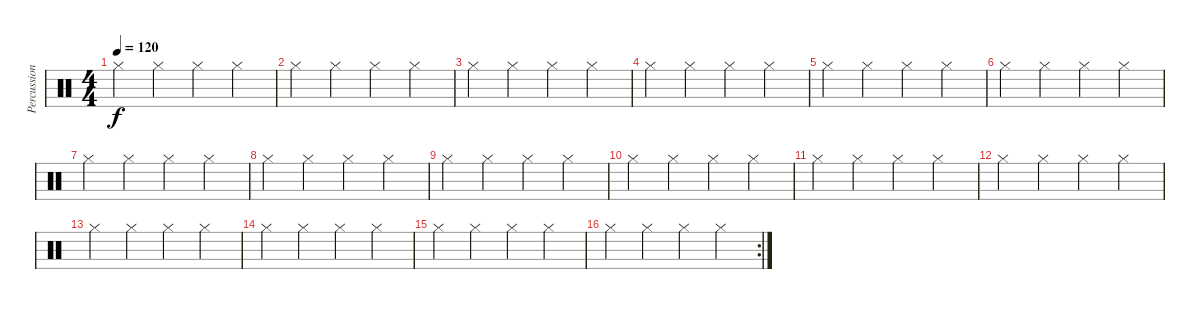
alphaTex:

\track ("Percussioni" "Percussion") {instrument percussion}
\staff {score}
\articulation defaults
\ts (4 4)
\tempo 120
\clef neutral
\ks c "Hi-Hat (closed)".4{dy f} "Hi-Hat (closed)".4 "Hi-Hat (closed)".4 "Hi-Hat (closed)".4
|
"Hi-Hat (closed)".4 "Hi-Hat (closed)".4 "Hi-Hat (closed)".4 "Hi-Hat (closed)".4 |
"Hi-Hat (closed)".4 "Hi-Hat (closed)".4 "Hi-Hat (closed)".4 "Hi-Hat (closed)".4 |
"Hi-Hat (closed)".4 "Hi-Hat (closed)".4 "Hi-Hat (closed)".4 "Hi-Hat (closed)".4 |
"Hi-Hat (closed)".4 "Hi-Hat (closed)".4 "Hi-Hat (closed)".4 "Hi-Hat (closed)".4 |
"Hi-Hat (closed)".4 "Hi-Hat (closed)".4 "Hi-Hat (closed)".4 "Hi-Hat (closed)".4 |
"Hi-Hat (closed)".4 "Hi-Hat (closed)".4 "Hi-Hat (closed)".4 "Hi-Hat (closed)".4 |
"Hi-Hat (closed)".4 "Hi-Hat (closed)".4 "Hi-Hat (closed)".4 "Hi-Hat (closed)".4 |
"Hi-Hat (closed)".4 "Hi-Hat (closed)".4 "Hi-Hat (closed)".4 "Hi-Hat (closed)".4 |
"Hi-Hat (closed)".4 "Hi-Hat (closed)".4 "Hi-Hat (closed)".4 "Hi-Hat (closed)".4 |
"Hi-Hat (closed)".4 "Hi-Hat (closed)".4 "Hi-Hat (closed)".4 "Hi-Hat (closed)".4 |
"Hi-Hat (closed)".4 "Hi-Hat (closed)".4 "Hi-Hat (closed)".4 "Hi-Hat (closed)".4 |
"Hi-Hat (closed)".4 "Hi-Hat (closed)".4 "Hi-Hat (closed)".4 "Hi-Hat (closed)".4 |
"Hi-Hat (closed)".4 "Hi-Hat (closed)".4 "Hi-Hat (closed)".4 "Hi-Hat (closed)".4 |
"Hi-Hat (closed)".4 "Hi-Hat (closed)".4 "Hi-Hat (closed)".4 "Hi-Hat (closed)".4 |
\rc 2 "Hi-Hat (closed)".4 "Hi-Hat (closed)".4 "Hi-Hat (closed)".4 "Hi-Hat (closed)".4
